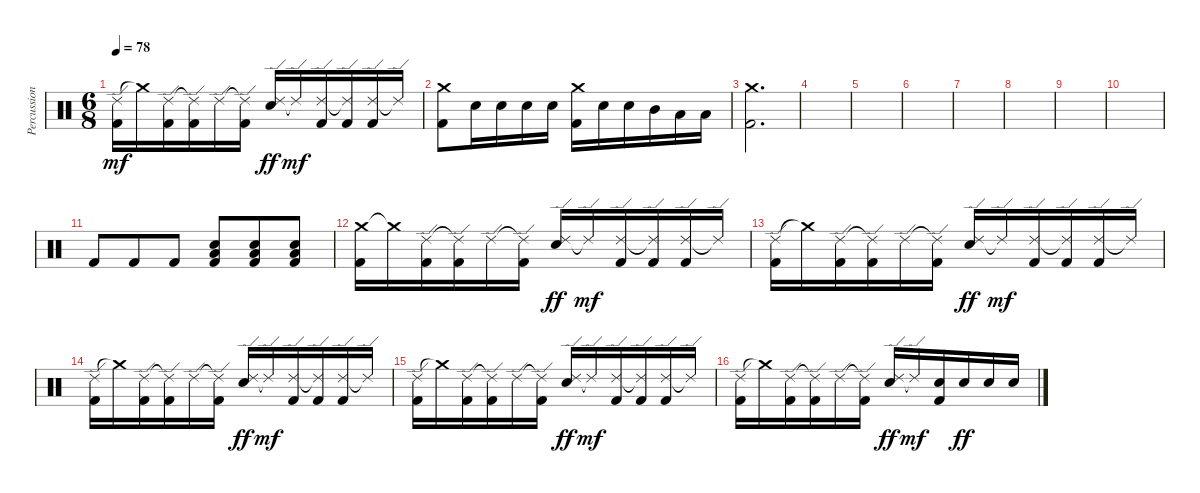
\track ("Percussion" "Percussion") {instrument percussion}
\staff {score}
\articulation defaults
\ts (6 8)
\tempo 78
\clef neutral
\ks c
("Ride (edge) 2" "Kick (hit) 2").16{dy mf} "Crash medium (hit)"{t}.16 ("Ride (edge) 2" "Kick (hit) 2").16 ("Ride (edge) 2"{t} "Kick (hit) 2").16 "Ride (edge) 2".16 ("Ride (edge) 2"{t} "Kick (hit) 2").16 ("Ride (edge) 2" "Electric Snare (hit)").16{dy ff} "Ride (edge) 2"{t}.16{dy mf} ("Ride (edge) 2" "Kick (hit) 2").16 ("Ride (edge) 2"{t} "Kick (hit) 2").16 ("Ride (edge) 2" "Kick (hit) 2").16 "Ride (edge) 2"{t}.16 |
("Crash medium (hit)" "Kick (hit) 2").8 "Electric Snare (hit)".16 "Electric Snare (hit)".16 "Electric Snare (hit)".16 "Electric Snare (hit)".16 ("Crash medium (hit)" "Kick (hit) 2").16 "Electric Snare (hit)".16 "Electric Snare (hit)".16 "Mid Tom (hit)".16 "Low Tom (hit)".16 "Low Floor Tom (hit)".16 |
("Crash medium (hit)" "Kick (hit) 2").2{d} |
|
|
|
|
|
|
|
"Kick (hit) 2".8 "Kick (hit) 2".8 "Kick (hit) 2".8 ("Electric Snare (hit)" "Low Floor Tom (hit)" "Kick (hit) 2").8 ("Electric Snare (hit)" "Low Floor Tom (hit)" "Kick (hit) 2").8 ("Electric Snare (hit)" "Low Floor Tom (hit)" "Kick (hit) 2").8 |
("Crash medium (hit)" "Kick (hit) 2").16 "Crash medium (hit)"{t}.16 ("Ride (edge) 2" "Kick (hit) 2").16 ("Ride (edge) 2"{t} "Kick (hit) 2").16 "Ride (edge) 2".16 ("Ride (edge) 2"{t} "Kick (hit) 2").16 ("Ride (edge) 2" "Electric Snare (hit)").16{dy ff} "Ride (edge) 2"{t}.16{dy mf} ("Ride (edge) 2" "Kick (hit) 2").16 ("Ride (edge) 2"{t} "Kick (hit) 2").16 ("Ride (edge) 2" "Kick (hit) 2").16 "Ride (edge) 2"{t}.16 |
("Ride (edge) 2" "Kick (hit) 2").16 "Crash medium (hit)"{t}.16 ("Ride (edge) 2" "Kick (hit) 2").16 ("Ride (edge) 2"{t} "Kick (hit) 2").16 "Ride (edge) 2".16 ("Ride (edge) 2"{t} "Kick (hit) 2").16 ("Ride (edge) 2" "Electric Snare (hit)").16{dy ff} "Ride (edge) 2"{t}.16{dy mf} ("Ride (edge) 2" "Kick (hit) 2").16 ("Ride (edge) 2"{t} "Kick (hit) 2").16 ("Ride (edge) 2" "Kick (hit) 2").16 "Ride (edge) 2"{t}.16 |
("Ride (edge) 2" "Kick (hit) 2").16 "Crash medium (hit)"{t}.16 ("Ride (edge) 2" "Kick (hit) 2").16 ("Ride (edge) 2"{t} "Kick (hit) 2").16 "Ride (edge) 2".16 ("Ride (edge) 2"{t} "Kick (hit) 2").16 ("Ride (edge) 2" "Electric Snare (hit)").16{dy ff} "Ride (edge) 2"{t}.16{dy mf} ("Ride (edge) 2" "Kick (hit) 2").16 ("Ride (edge) 2"{t} "Kick (hit) 2").16 ("Ride (edge) 2" "Kick (hit) 2").16 "Ride (edge) 2"{t}.16 |
("Ride (edge) 2" "Kick (hit) 2").16 "Crash medium (hit)"{t}.16 ("Ride (edge) 2" "Kick (hit) 2").16 ("Ride (edge) 2"{t} "Kick (hit) 2").16 "Ride (edge) 2".16 ("Ride (edge) 2"{t} "Kick (hit) 2").16 ("Ride (edge) 2" "Electric Snare (hit)").16{dy ff} "Ride (edge) 2"{t}.16{dy mf} ("Ride (edge) 2" "Kick (hit) 2").16 ("Ride (edge) 2"{t} "Kick (hit) 2").16 ("Ride (edge) 2" "Kick (hit) 2").16 "Ride (edge) 2"{t}.16 |
("Ride (edge) 2" "Kick (hit) 2").16 "Crash medium (hit)"{t}.16 ("Ride (edge) 2" "Kick (hit) 2").16 ("Ride (edge) 2"{t} "Kick (hit) 2").16 "Ride (edge) 2".16 ("Ride (edge) 2"{t} "Kick (hit) 2").16 ("Ride (edge) 2" "Electric Snare (hit)").16{dy ff} "Ride (edge) 2"{t}.16{dy mf} ("Electric Snare (hit)" "Kick (hit) 2").16 "Electric Snare (hit)".16{dy ff} "Electric Snare (hit)".16 "Electric Snare (hit)".16
